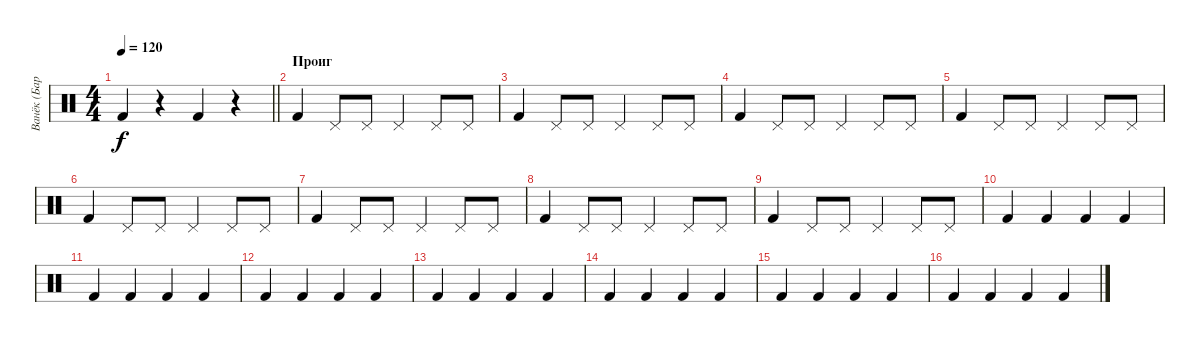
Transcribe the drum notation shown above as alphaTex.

\track ("Ванёк (Барабанщик)" "Ванёк (Бар") {instrument percussion}
\staff {score}
\articulation defaults
\ts (4 4)
\tempo 120
\clef neutral
\barLineRight lightlight
\ks c "Kick (hit) 2".4{dy f}
r.4 "Kick (hit) 2".4 r.4 |
\section ("" "Проиг")
"Kick (hit) 2".4 "Pedal Hi-Hat (hit)".8 "Pedal Hi-Hat (hit)".8 "Pedal Hi-Hat (hit)".4 "Pedal Hi-Hat (hit)".8 "Pedal Hi-Hat (hit)".8 |
"Kick (hit) 2".4 "Pedal Hi-Hat (hit)".8 "Pedal Hi-Hat (hit)".8 "Pedal Hi-Hat (hit)".4 "Pedal Hi-Hat (hit)".8 "Pedal Hi-Hat (hit)".8 |
"Kick (hit) 2".4 "Pedal Hi-Hat (hit)".8 "Pedal Hi-Hat (hit)".8 "Pedal Hi-Hat (hit)".4 "Pedal Hi-Hat (hit)".8 "Pedal Hi-Hat (hit)".8 |
"Kick (hit) 2".4 "Pedal Hi-Hat (hit)".8 "Pedal Hi-Hat (hit)".8 "Pedal Hi-Hat (hit)".4 "Pedal Hi-Hat (hit)".8 "Pedal Hi-Hat (hit)".8 |
"Kick (hit) 2".4 "Pedal Hi-Hat (hit)".8 "Pedal Hi-Hat (hit)".8 "Pedal Hi-Hat (hit)".4 "Pedal Hi-Hat (hit)".8 "Pedal Hi-Hat (hit)".8 |
"Kick (hit) 2".4 "Pedal Hi-Hat (hit)".8 "Pedal Hi-Hat (hit)".8 "Pedal Hi-Hat (hit)".4 "Pedal Hi-Hat (hit)".8 "Pedal Hi-Hat (hit)".8 |
"Kick (hit) 2".4 "Pedal Hi-Hat (hit)".8 "Pedal Hi-Hat (hit)".8 "Pedal Hi-Hat (hit)".4 "Pedal Hi-Hat (hit)".8 "Pedal Hi-Hat (hit)".8 |
"Kick (hit) 2".4 "Pedal Hi-Hat (hit)".8 "Pedal Hi-Hat (hit)".8 "Pedal Hi-Hat (hit)".4 "Pedal Hi-Hat (hit)".8 "Pedal Hi-Hat (hit)".8 |
"Kick (hit) 2".4 "Kick (hit) 2".4 "Kick (hit) 2".4 "Kick (hit) 2".4 |
"Kick (hit) 2".4 "Kick (hit) 2".4 "Kick (hit) 2".4 "Kick (hit) 2".4 |
"Kick (hit) 2".4 "Kick (hit) 2".4 "Kick (hit) 2".4 "Kick (hit) 2".4 |
"Kick (hit) 2".4 "Kick (hit) 2".4 "Kick (hit) 2".4 "Kick (hit) 2".4 |
"Kick (hit) 2".4 "Kick (hit) 2".4 "Kick (hit) 2".4 "Kick (hit) 2".4 |
"Kick (hit) 2".4 "Kick (hit) 2".4 "Kick (hit) 2".4 "Kick (hit) 2".4 |
"Kick (hit) 2".4 "Kick (hit) 2".4 "Kick (hit) 2".4 "Kick (hit) 2".4
